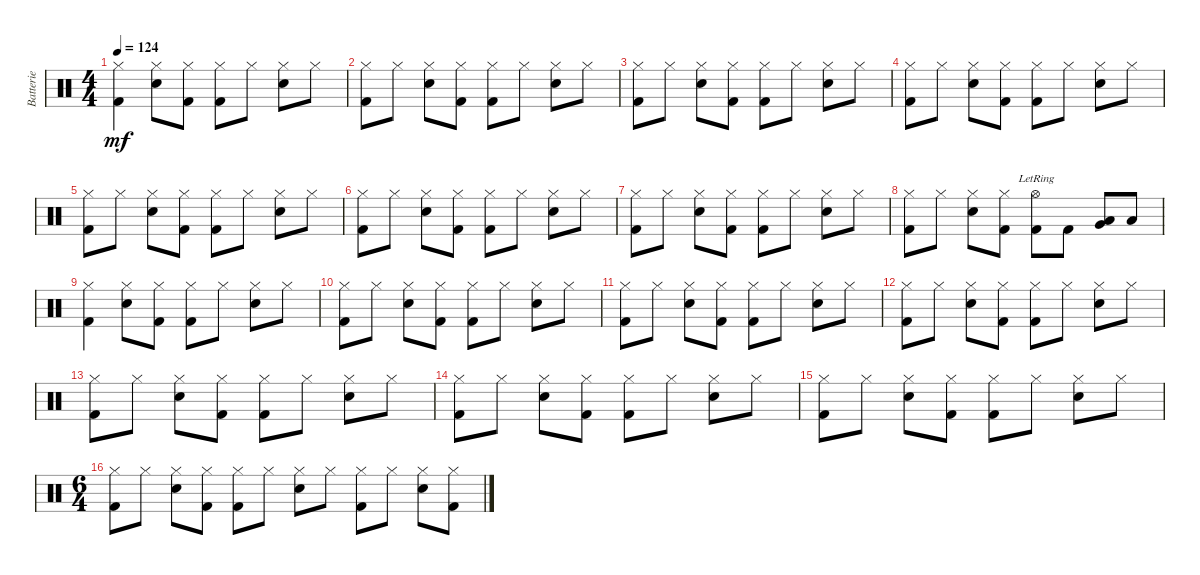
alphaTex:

\track ("Batterie" "Batterie") {instrument percussion}
\staff {score}
\articulation defaults
\ts (4 4)
\tempo 124
\clef neutral
\ks c
("Hi-Hat (closed)" "Kick (hit) 2").4{dy mf} ("Hi-Hat (closed)" "Snare (hit) 2").8 ("Hi-Hat (closed)" "Kick (hit) 2").8 ("Hi-Hat (closed)" "Kick (hit) 2").8 "Hi-Hat (closed)".8 ("Hi-Hat (closed)" "Snare (hit) 2").8 "Hi-Hat (closed)".8 |
("Hi-Hat (closed)" "Kick (hit) 2").8 "Hi-Hat (closed)".8 ("Hi-Hat (closed)" "Snare (hit) 2").8 ("Hi-Hat (closed)" "Kick (hit) 2").8 ("Hi-Hat (closed)" "Kick (hit) 2").8 "Hi-Hat (closed)".8 ("Hi-Hat (closed)" "Snare (hit) 2").8 "Hi-Hat (closed)".8 |
("Hi-Hat (closed)" "Kick (hit) 2").8 "Hi-Hat (closed)".8 ("Hi-Hat (closed)" "Snare (hit) 2").8 ("Hi-Hat (closed)" "Kick (hit) 2").8 ("Hi-Hat (closed)" "Kick (hit) 2").8 "Hi-Hat (closed)".8 ("Hi-Hat (closed)" "Snare (hit) 2").8 "Hi-Hat (closed)".8 |
("Hi-Hat (closed)" "Kick (hit) 2").8 "Hi-Hat (closed)".8 ("Hi-Hat (closed)" "Snare (hit) 2").8 ("Hi-Hat (closed)" "Kick (hit) 2").8 ("Hi-Hat (closed)" "Kick (hit) 2").8 "Hi-Hat (closed)".8 ("Hi-Hat (closed)" "Snare (hit) 2").8 "Hi-Hat (closed)".8 |
("Hi-Hat (closed)" "Kick (hit) 2").8 "Hi-Hat (closed)".8 ("Hi-Hat (closed)" "Snare (hit) 2").8 ("Hi-Hat (closed)" "Kick (hit) 2").8 ("Hi-Hat (closed)" "Kick (hit) 2").8 "Hi-Hat (closed)".8 ("Hi-Hat (closed)" "Snare (hit) 2").8 "Hi-Hat (closed)".8 |
("Hi-Hat (closed)" "Kick (hit) 2").8 "Hi-Hat (closed)".8 ("Hi-Hat (closed)" "Snare (hit) 2").8 ("Hi-Hat (closed)" "Kick (hit) 2").8 ("Hi-Hat (closed)" "Kick (hit) 2").8 "Hi-Hat (closed)".8 ("Hi-Hat (closed)" "Snare (hit) 2").8 "Hi-Hat (closed)".8 |
("Hi-Hat (closed)" "Kick (hit) 2").8 "Hi-Hat (closed)".8 ("Hi-Hat (closed)" "Snare (hit) 2").8 ("Hi-Hat (closed)" "Kick (hit) 2").8 ("Hi-Hat (closed)" "Kick (hit) 2").8 "Hi-Hat (closed)".8 ("Hi-Hat (closed)" "Snare (hit) 2").8 "Hi-Hat (closed)".8 |
("Hi-Hat (closed)" "Kick (hit) 2").8 "Hi-Hat (closed)".8 ("Hi-Hat (closed)" "Snare (hit) 2").8 ("Hi-Hat (closed)" "Kick (hit) 2").8 ("Hi-Hat (open)"{lr} "Kick (hit) 2").8 "Kick (hit) 2".8 ("Low Tom (hit)" "Very Low Tom (hit)").8 "Low Floor Tom (hit)".8 |
("Hi-Hat (closed)" "Kick (hit) 2").4 ("Hi-Hat (closed)" "Snare (hit) 2").8 ("Hi-Hat (closed)" "Kick (hit) 2").8 ("Hi-Hat (closed)" "Kick (hit) 2").8 "Hi-Hat (closed)".8 ("Hi-Hat (closed)" "Snare (hit) 2").8 "Hi-Hat (closed)".8 |
("Hi-Hat (closed)" "Kick (hit) 2").8 "Hi-Hat (closed)".8 ("Hi-Hat (closed)" "Snare (hit) 2").8 ("Hi-Hat (closed)" "Kick (hit) 2").8 ("Hi-Hat (closed)" "Kick (hit) 2").8 "Hi-Hat (closed)".8 ("Hi-Hat (closed)" "Snare (hit) 2").8 "Hi-Hat (closed)".8 |
("Hi-Hat (closed)" "Kick (hit) 2").8 "Hi-Hat (closed)".8 ("Hi-Hat (closed)" "Snare (hit) 2").8 ("Hi-Hat (closed)" "Kick (hit) 2").8 ("Hi-Hat (closed)" "Kick (hit) 2").8 "Hi-Hat (closed)".8 ("Hi-Hat (closed)" "Snare (hit) 2").8 "Hi-Hat (closed)".8 |
("Hi-Hat (closed)" "Kick (hit) 2").8 "Hi-Hat (closed)".8 ("Hi-Hat (closed)" "Snare (hit) 2").8 ("Hi-Hat (closed)" "Kick (hit) 2").8 ("Hi-Hat (closed)" "Kick (hit) 2").8 "Hi-Hat (closed)".8 ("Hi-Hat (closed)" "Snare (hit) 2").8 "Hi-Hat (closed)".8 |
("Hi-Hat (closed)" "Kick (hit) 2").8 "Hi-Hat (closed)".8 ("Hi-Hat (closed)" "Snare (hit) 2").8 ("Hi-Hat (closed)" "Kick (hit) 2").8 ("Hi-Hat (closed)" "Kick (hit) 2").8 "Hi-Hat (closed)".8 ("Hi-Hat (closed)" "Snare (hit) 2").8 "Hi-Hat (closed)".8 |
("Hi-Hat (closed)" "Kick (hit) 2").8 "Hi-Hat (closed)".8 ("Hi-Hat (closed)" "Snare (hit) 2").8 ("Hi-Hat (closed)" "Kick (hit) 2").8 ("Hi-Hat (closed)" "Kick (hit) 2").8 "Hi-Hat (closed)".8 ("Hi-Hat (closed)" "Snare (hit) 2").8 "Hi-Hat (closed)".8 |
("Hi-Hat (closed)" "Kick (hit) 2").8 "Hi-Hat (closed)".8 ("Hi-Hat (closed)" "Snare (hit) 2").8 ("Hi-Hat (closed)" "Kick (hit) 2").8 ("Hi-Hat (closed)" "Kick (hit) 2").8 "Hi-Hat (closed)".8 ("Hi-Hat (closed)" "Snare (hit) 2").8 "Hi-Hat (closed)".8 |
\ts (6 4)
("Hi-Hat (closed)" "Kick (hit) 2").8 "Hi-Hat (closed)".8 ("Hi-Hat (closed)" "Snare (hit) 2").8 ("Hi-Hat (closed)" "Kick (hit) 2").8 ("Hi-Hat (closed)" "Kick (hit) 2").8 "Hi-Hat (closed)".8 ("Hi-Hat (closed)" "Snare (hit) 2").8 "Hi-Hat (closed)".8 ("Hi-Hat (closed)" "Kick (hit) 2").8 "Hi-Hat (closed)".8 ("Hi-Hat (closed)" "Snare (hit) 2").8 ("Hi-Hat (closed)" "Kick (hit) 2").8
